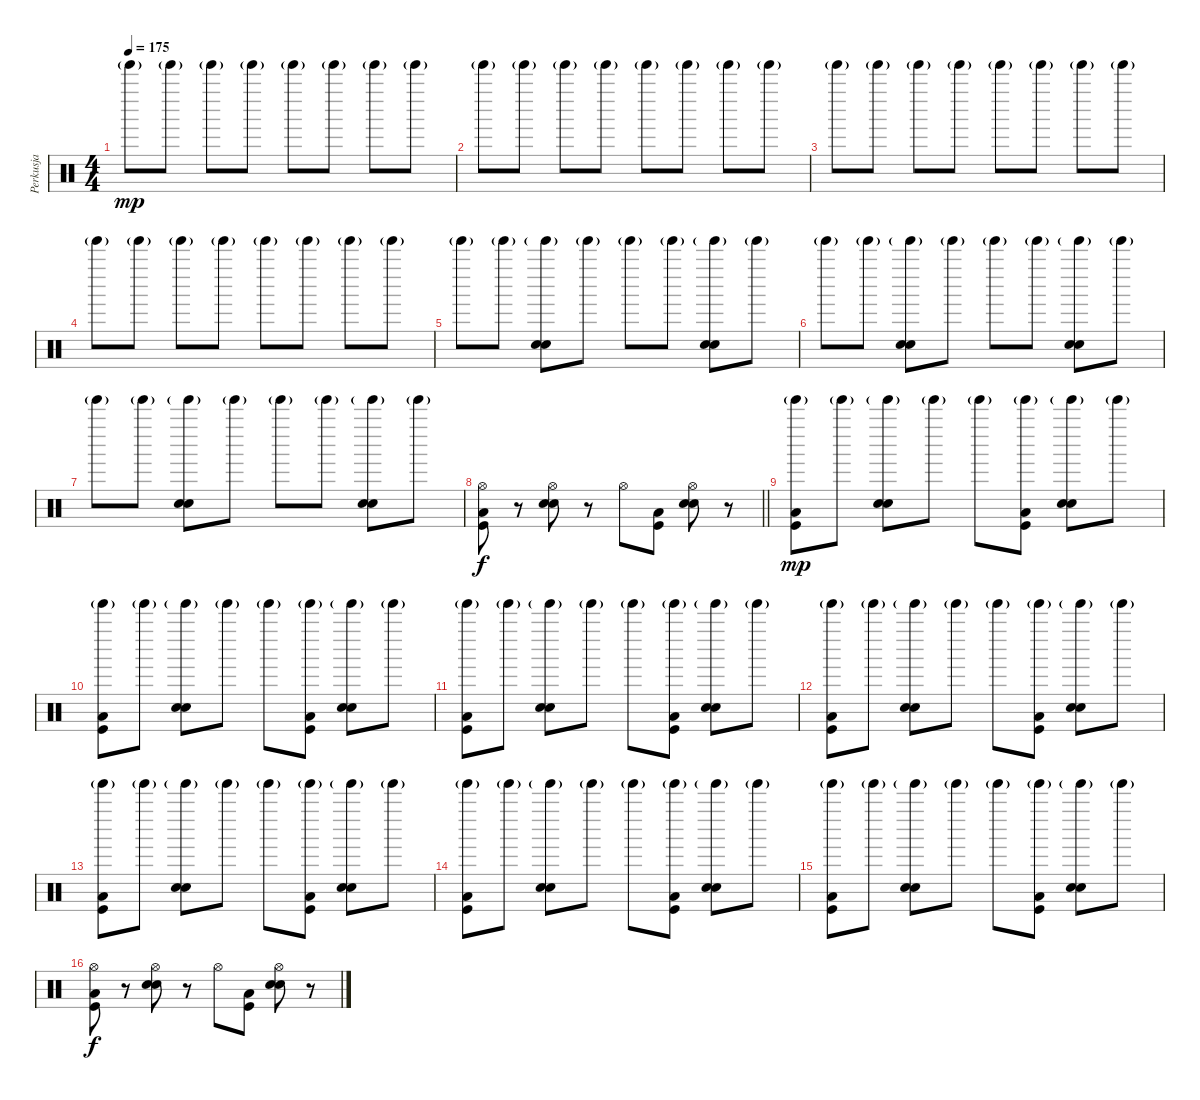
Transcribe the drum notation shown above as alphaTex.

\track ("Perkusja" "Perkusja") {instrument percussion}
\staff {score}
\articulation defaults
\ts (4 4)
\section ("" "")
\tempo 175
\clef neutral
\ks c "Tinkle Bell (hit)"{g}.8{dy mp} "Tinkle Bell (hit)"{g}.8 "Tinkle Bell (hit)"{g}.8 "Tinkle Bell (hit)"{g}.8 "Tinkle Bell (hit)"{g}.8 "Tinkle Bell (hit)"{g}.8 "Tinkle Bell (hit)"{g}.8 "Tinkle Bell (hit)"{g}.8
|
"Tinkle Bell (hit)"{g}.8 "Tinkle Bell (hit)"{g}.8 "Tinkle Bell (hit)"{g}.8 "Tinkle Bell (hit)"{g}.8 "Tinkle Bell (hit)"{g}.8 "Tinkle Bell (hit)"{g}.8 "Tinkle Bell (hit)"{g}.8 "Tinkle Bell (hit)"{g}.8 |
"Tinkle Bell (hit)"{g}.8 "Tinkle Bell (hit)"{g}.8 "Tinkle Bell (hit)"{g}.8 "Tinkle Bell (hit)"{g}.8 "Tinkle Bell (hit)"{g}.8 "Tinkle Bell (hit)"{g}.8 "Tinkle Bell (hit)"{g}.8 "Tinkle Bell (hit)"{g}.8 |
"Tinkle Bell (hit)"{g}.8 "Tinkle Bell (hit)"{g}.8 "Tinkle Bell (hit)"{g}.8 "Tinkle Bell (hit)"{g}.8 "Tinkle Bell (hit)"{g}.8 "Tinkle Bell (hit)"{g}.8 "Tinkle Bell (hit)"{g}.8 "Tinkle Bell (hit)"{g}.8 |
"Tinkle Bell (hit)"{g}.8 "Tinkle Bell (hit)"{g}.8 ("Tinkle Bell (hit)"{g} "Snare (hit) 2" "Electric Snare (hit)").8 "Tinkle Bell (hit)"{g}.8 "Tinkle Bell (hit)"{g}.8 "Tinkle Bell (hit)"{g}.8 ("Tinkle Bell (hit)"{g} "Snare (hit) 2" "Electric Snare (hit)").8 "Tinkle Bell (hit)"{g}.8 |
"Tinkle Bell (hit)"{g}.8 "Tinkle Bell (hit)"{g}.8 ("Tinkle Bell (hit)"{g} "Snare (hit) 2" "Electric Snare (hit)").8 "Tinkle Bell (hit)"{g}.8 "Tinkle Bell (hit)"{g}.8 "Tinkle Bell (hit)"{g}.8 ("Tinkle Bell (hit)"{g} "Snare (hit) 2" "Electric Snare (hit)").8 "Tinkle Bell (hit)"{g}.8 |
"Tinkle Bell (hit)"{g}.8 "Tinkle Bell (hit)"{g}.8 ("Tinkle Bell (hit)"{g} "Snare (hit) 2" "Electric Snare (hit)").8 "Tinkle Bell (hit)"{g}.8 "Tinkle Bell (hit)"{g}.8 "Tinkle Bell (hit)"{g}.8 ("Tinkle Bell (hit)"{g} "Snare (hit) 2" "Electric Snare (hit)").8 "Tinkle Bell (hit)"{g}.8 |
\barLineRight lightlight
("Hi-Hat (open)" "Low Floor Tom (hit)" "Kick (hit)").8{dy f} r.8 ("Hi-Hat (open)" "Snare (hit) 2" "Electric Snare (hit)").8 r.8 "Hi-Hat (open)".8 ("Low Floor Tom (hit)" "Kick (hit)").8 ("Hi-Hat (open)" "Snare (hit) 2" "Electric Snare (hit)").8 r.8 |
\section ("" "")
("Tinkle Bell (hit)"{g} "Low Floor Tom (hit)" "Kick (hit)").8{dy mp} "Tinkle Bell (hit)"{g}.8 ("Tinkle Bell (hit)"{g} "Snare (hit) 2" "Electric Snare (hit)").8 "Tinkle Bell (hit)"{g}.8 "Tinkle Bell (hit)"{g}.8 ("Tinkle Bell (hit)"{g} "Low Floor Tom (hit)" "Kick (hit)").8 ("Tinkle Bell (hit)"{g} "Snare (hit) 2" "Electric Snare (hit)").8 "Tinkle Bell (hit)"{g}.8 |
("Tinkle Bell (hit)"{g} "Low Floor Tom (hit)" "Kick (hit)").8 "Tinkle Bell (hit)"{g}.8 ("Tinkle Bell (hit)"{g} "Snare (hit) 2" "Electric Snare (hit)").8 "Tinkle Bell (hit)"{g}.8 "Tinkle Bell (hit)"{g}.8 ("Tinkle Bell (hit)"{g} "Low Floor Tom (hit)" "Kick (hit)").8 ("Tinkle Bell (hit)"{g} "Snare (hit) 2" "Electric Snare (hit)").8 "Tinkle Bell (hit)"{g}.8 |
("Tinkle Bell (hit)"{g} "Low Floor Tom (hit)" "Kick (hit)").8 "Tinkle Bell (hit)"{g}.8 ("Tinkle Bell (hit)"{g} "Snare (hit) 2" "Electric Snare (hit)").8 "Tinkle Bell (hit)"{g}.8 "Tinkle Bell (hit)"{g}.8 ("Tinkle Bell (hit)"{g} "Low Floor Tom (hit)" "Kick (hit)").8 ("Tinkle Bell (hit)"{g} "Snare (hit) 2" "Electric Snare (hit)").8 "Tinkle Bell (hit)"{g}.8 |
("Tinkle Bell (hit)"{g} "Low Floor Tom (hit)" "Kick (hit)").8 "Tinkle Bell (hit)"{g}.8 ("Tinkle Bell (hit)"{g} "Snare (hit) 2" "Electric Snare (hit)").8 "Tinkle Bell (hit)"{g}.8 "Tinkle Bell (hit)"{g}.8 ("Tinkle Bell (hit)"{g} "Low Floor Tom (hit)" "Kick (hit)").8 ("Tinkle Bell (hit)"{g} "Snare (hit) 2" "Electric Snare (hit)").8 "Tinkle Bell (hit)"{g}.8 |
("Tinkle Bell (hit)"{g} "Low Floor Tom (hit)" "Kick (hit)").8 "Tinkle Bell (hit)"{g}.8 ("Tinkle Bell (hit)"{g} "Snare (hit) 2" "Electric Snare (hit)").8 "Tinkle Bell (hit)"{g}.8 "Tinkle Bell (hit)"{g}.8 ("Tinkle Bell (hit)"{g} "Low Floor Tom (hit)" "Kick (hit)").8 ("Tinkle Bell (hit)"{g} "Snare (hit) 2" "Electric Snare (hit)").8 "Tinkle Bell (hit)"{g}.8 |
("Tinkle Bell (hit)"{g} "Low Floor Tom (hit)" "Kick (hit)").8 "Tinkle Bell (hit)"{g}.8 ("Tinkle Bell (hit)"{g} "Snare (hit) 2" "Electric Snare (hit)").8 "Tinkle Bell (hit)"{g}.8 "Tinkle Bell (hit)"{g}.8 ("Tinkle Bell (hit)"{g} "Low Floor Tom (hit)" "Kick (hit)").8 ("Tinkle Bell (hit)"{g} "Snare (hit) 2" "Electric Snare (hit)").8 "Tinkle Bell (hit)"{g}.8 |
("Tinkle Bell (hit)"{g} "Low Floor Tom (hit)" "Kick (hit)").8 "Tinkle Bell (hit)"{g}.8 ("Tinkle Bell (hit)"{g} "Snare (hit) 2" "Electric Snare (hit)").8 "Tinkle Bell (hit)"{g}.8 "Tinkle Bell (hit)"{g}.8 ("Tinkle Bell (hit)"{g} "Low Floor Tom (hit)" "Kick (hit)").8 ("Tinkle Bell (hit)"{g} "Snare (hit) 2" "Electric Snare (hit)").8 "Tinkle Bell (hit)"{g}.8 |
("Hi-Hat (open)" "Low Floor Tom (hit)" "Kick (hit)").8{dy f} r.8 ("Hi-Hat (open)" "Snare (hit) 2" "Electric Snare (hit)").8 r.8 "Hi-Hat (open)".8 ("Low Floor Tom (hit)" "Kick (hit)").8 ("Hi-Hat (open)" "Snare (hit) 2" "Electric Snare (hit)").8 r.8
